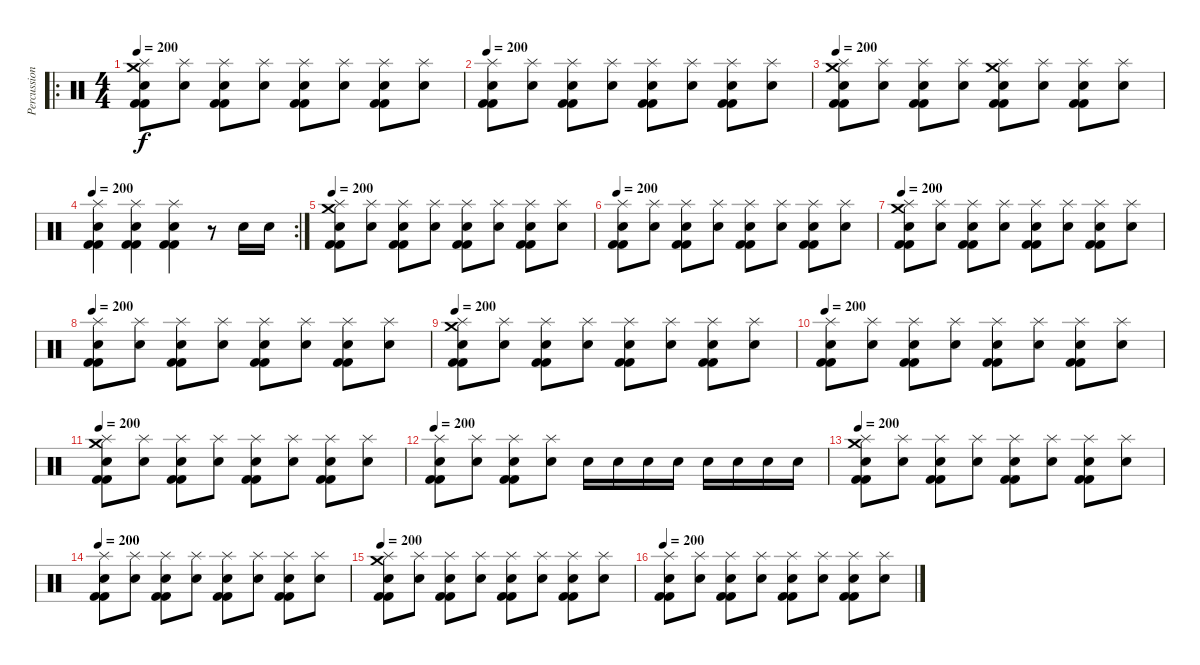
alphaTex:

\track ("Percussions" "Percussion") {instrument percussion}
\staff {score}
\articulation defaults
\ro
\ts (4 4)
\tempo 200
\clef neutral
\ks c
("Kick (hit) 2" "Kick (hit) 2" "Snare (hit) 2" "Crash medium (hit)" "Splash (hit)").8{dy f} ("Snare (hit) 2" "Splash (hit)").8 ("Kick (hit) 2" "Kick (hit) 2" "Snare (hit) 2" "Splash (hit)").8 ("Snare (hit) 2" "Splash (hit)").8 ("Kick (hit) 2" "Kick (hit) 2" "Snare (hit) 2" "Splash (hit)").8 ("Snare (hit) 2" "Splash (hit)").8 ("Kick (hit) 2" "Kick (hit) 2" "Snare (hit) 2" "Splash (hit)").8 ("Snare (hit) 2" "Splash (hit)").8 |
\tempo 200
("Kick (hit) 2" "Kick (hit) 2" "Snare (hit) 2" "Splash (hit)").8 ("Snare (hit) 2" "Splash (hit)").8 ("Kick (hit) 2" "Kick (hit) 2" "Snare (hit) 2" "Splash (hit)").8 ("Snare (hit) 2" "Splash (hit)").8 ("Kick (hit) 2" "Kick (hit) 2" "Snare (hit) 2" "Splash (hit)").8 ("Snare (hit) 2" "Splash (hit)").8 ("Kick (hit) 2" "Kick (hit) 2" "Snare (hit) 2" "Splash (hit)").8 ("Snare (hit) 2" "Splash (hit)").8 |
\tempo 200
("Kick (hit) 2" "Kick (hit) 2" "Snare (hit) 2" "Crash medium (hit)" "Splash (hit)").8 ("Snare (hit) 2" "Splash (hit)").8 ("Kick (hit) 2" "Kick (hit) 2" "Snare (hit) 2" "Splash (hit)").8 ("Snare (hit) 2" "Splash (hit)").8 ("Kick (hit) 2" "Kick (hit) 2" "Snare (hit) 2" "Crash medium (hit)" "Splash (hit)").8 ("Snare (hit) 2" "Splash (hit)").8 ("Kick (hit) 2" "Kick (hit) 2" "Snare (hit) 2" "Splash (hit)").8 ("Snare (hit) 2" "Splash (hit)").8 |
\rc 2
\tempo 200
("Kick (hit) 2" "Kick (hit) 2" "Snare (hit) 2" "Splash (hit)").4 ("Kick (hit) 2" "Kick (hit) 2" "Snare (hit) 2" "Splash (hit)").4 ("Kick (hit) 2" "Kick (hit) 2" "Snare (hit) 2" "Splash (hit)").4 r.8 "Snare (hit) 2".16 "Snare (hit) 2".16 |
\tempo 200
("Kick (hit) 2" "Kick (hit) 2" "Snare (hit) 2" "Crash medium (hit)" "Splash (hit)").8 ("Snare (hit) 2" "Splash (hit)").8 ("Kick (hit) 2" "Kick (hit) 2" "Snare (hit) 2" "Splash (hit)").8 ("Snare (hit) 2" "Splash (hit)").8 ("Kick (hit) 2" "Kick (hit) 2" "Snare (hit) 2" "Splash (hit)").8 ("Snare (hit) 2" "Splash (hit)").8 ("Kick (hit) 2" "Kick (hit) 2" "Snare (hit) 2" "Splash (hit)").8 ("Snare (hit) 2" "Splash (hit)").8 |
\tempo 200
("Kick (hit) 2" "Kick (hit) 2" "Snare (hit) 2" "Splash (hit)").8 ("Snare (hit) 2" "Splash (hit)").8 ("Kick (hit) 2" "Kick (hit) 2" "Snare (hit) 2" "Splash (hit)").8 ("Snare (hit) 2" "Splash (hit)").8 ("Kick (hit) 2" "Kick (hit) 2" "Snare (hit) 2" "Splash (hit)").8 ("Snare (hit) 2" "Splash (hit)").8 ("Kick (hit) 2" "Kick (hit) 2" "Snare (hit) 2" "Splash (hit)").8 ("Snare (hit) 2" "Splash (hit)").8 |
\tempo 200
("Kick (hit) 2" "Kick (hit) 2" "Snare (hit) 2" "Crash medium (hit)" "Splash (hit)").8 ("Snare (hit) 2" "Splash (hit)").8 ("Kick (hit) 2" "Kick (hit) 2" "Snare (hit) 2" "Splash (hit)").8 ("Snare (hit) 2" "Splash (hit)").8 ("Kick (hit) 2" "Kick (hit) 2" "Snare (hit) 2" "Splash (hit)").8 ("Snare (hit) 2" "Splash (hit)").8 ("Kick (hit) 2" "Kick (hit) 2" "Snare (hit) 2" "Splash (hit)").8 ("Snare (hit) 2" "Splash (hit)").8 |
\tempo 200
("Kick (hit) 2" "Kick (hit) 2" "Snare (hit) 2" "Splash (hit)").8 ("Snare (hit) 2" "Splash (hit)").8 ("Kick (hit) 2" "Kick (hit) 2" "Snare (hit) 2" "Splash (hit)").8 ("Snare (hit) 2" "Splash (hit)").8 ("Kick (hit) 2" "Kick (hit) 2" "Snare (hit) 2" "Splash (hit)").8 ("Snare (hit) 2" "Splash (hit)").8 ("Kick (hit) 2" "Kick (hit) 2" "Snare (hit) 2" "Splash (hit)").8 ("Snare (hit) 2" "Splash (hit)").8 |
\tempo 200
("Kick (hit) 2" "Kick (hit) 2" "Snare (hit) 2" "Crash medium (hit)" "Splash (hit)").8 ("Snare (hit) 2" "Splash (hit)").8 ("Kick (hit) 2" "Kick (hit) 2" "Snare (hit) 2" "Splash (hit)").8 ("Snare (hit) 2" "Splash (hit)").8 ("Kick (hit) 2" "Kick (hit) 2" "Snare (hit) 2" "Splash (hit)").8 ("Snare (hit) 2" "Splash (hit)").8 ("Kick (hit) 2" "Kick (hit) 2" "Snare (hit) 2" "Splash (hit)").8 ("Snare (hit) 2" "Splash (hit)").8 |
\tempo 200
("Kick (hit) 2" "Kick (hit) 2" "Snare (hit) 2" "Splash (hit)").8 ("Snare (hit) 2" "Splash (hit)").8 ("Kick (hit) 2" "Kick (hit) 2" "Snare (hit) 2" "Splash (hit)").8 ("Snare (hit) 2" "Splash (hit)").8 ("Kick (hit) 2" "Kick (hit) 2" "Snare (hit) 2" "Splash (hit)").8 ("Snare (hit) 2" "Splash (hit)").8 ("Kick (hit) 2" "Kick (hit) 2" "Snare (hit) 2" "Splash (hit)").8 ("Snare (hit) 2" "Splash (hit)").8 |
\tempo 200
("Kick (hit) 2" "Kick (hit) 2" "Snare (hit) 2" "Crash medium (hit)" "Splash (hit)").8 ("Snare (hit) 2" "Splash (hit)").8 ("Kick (hit) 2" "Kick (hit) 2" "Snare (hit) 2" "Splash (hit)").8 ("Snare (hit) 2" "Splash (hit)").8 ("Kick (hit) 2" "Kick (hit) 2" "Snare (hit) 2" "Splash (hit)").8 ("Snare (hit) 2" "Splash (hit)").8 ("Kick (hit) 2" "Kick (hit) 2" "Snare (hit) 2" "Splash (hit)").8 ("Snare (hit) 2" "Splash (hit)").8 |
\tempo 200
("Kick (hit) 2" "Kick (hit) 2" "Snare (hit) 2" "Splash (hit)").8 ("Snare (hit) 2" "Splash (hit)").8 ("Kick (hit) 2" "Kick (hit) 2" "Snare (hit) 2" "Splash (hit)").8 ("Snare (hit) 2" "Splash (hit)").8 "Snare (hit) 2".16 "Snare (hit) 2".16 "Snare (hit) 2".16 "Snare (hit) 2".16 "Snare (hit) 2".16 "Snare (hit) 2".16 "Snare (hit) 2".16 "Snare (hit) 2".16 |
\tempo 200
("Kick (hit) 2" "Kick (hit) 2" "Snare (hit) 2" "Crash medium (hit)" "Splash (hit)").8 ("Snare (hit) 2" "Splash (hit)").8 ("Kick (hit) 2" "Kick (hit) 2" "Snare (hit) 2" "Splash (hit)").8 ("Snare (hit) 2" "Splash (hit)").8 ("Kick (hit) 2" "Kick (hit) 2" "Snare (hit) 2" "Splash (hit)").8 ("Snare (hit) 2" "Splash (hit)").8 ("Kick (hit) 2" "Kick (hit) 2" "Snare (hit) 2" "Splash (hit)").8 ("Snare (hit) 2" "Splash (hit)").8 |
\tempo 200
("Kick (hit) 2" "Kick (hit) 2" "Snare (hit) 2" "Splash (hit)").8 ("Snare (hit) 2" "Splash (hit)").8 ("Kick (hit) 2" "Kick (hit) 2" "Snare (hit) 2" "Splash (hit)").8 ("Snare (hit) 2" "Splash (hit)").8 ("Kick (hit) 2" "Kick (hit) 2" "Snare (hit) 2" "Splash (hit)").8 ("Snare (hit) 2" "Splash (hit)").8 ("Kick (hit) 2" "Kick (hit) 2" "Snare (hit) 2" "Splash (hit)").8 ("Snare (hit) 2" "Splash (hit)").8 |
\tempo 200
("Kick (hit) 2" "Kick (hit) 2" "Snare (hit) 2" "Crash medium (hit)" "Splash (hit)").8 ("Snare (hit) 2" "Splash (hit)").8 ("Kick (hit) 2" "Kick (hit) 2" "Snare (hit) 2" "Splash (hit)").8 ("Snare (hit) 2" "Splash (hit)").8 ("Kick (hit) 2" "Kick (hit) 2" "Snare (hit) 2" "Splash (hit)").8 ("Snare (hit) 2" "Splash (hit)").8 ("Kick (hit) 2" "Kick (hit) 2" "Snare (hit) 2" "Splash (hit)").8 ("Snare (hit) 2" "Splash (hit)").8 |
\tempo 200
("Kick (hit) 2" "Kick (hit) 2" "Snare (hit) 2" "Splash (hit)").8 ("Snare (hit) 2" "Splash (hit)").8 ("Kick (hit) 2" "Kick (hit) 2" "Snare (hit) 2" "Splash (hit)").8 ("Snare (hit) 2" "Splash (hit)").8 ("Kick (hit) 2" "Kick (hit) 2" "Snare (hit) 2" "Splash (hit)").8 ("Snare (hit) 2" "Splash (hit)").8 ("Kick (hit) 2" "Kick (hit) 2" "Snare (hit) 2" "Splash (hit)").8 ("Snare (hit) 2" "Splash (hit)").8
